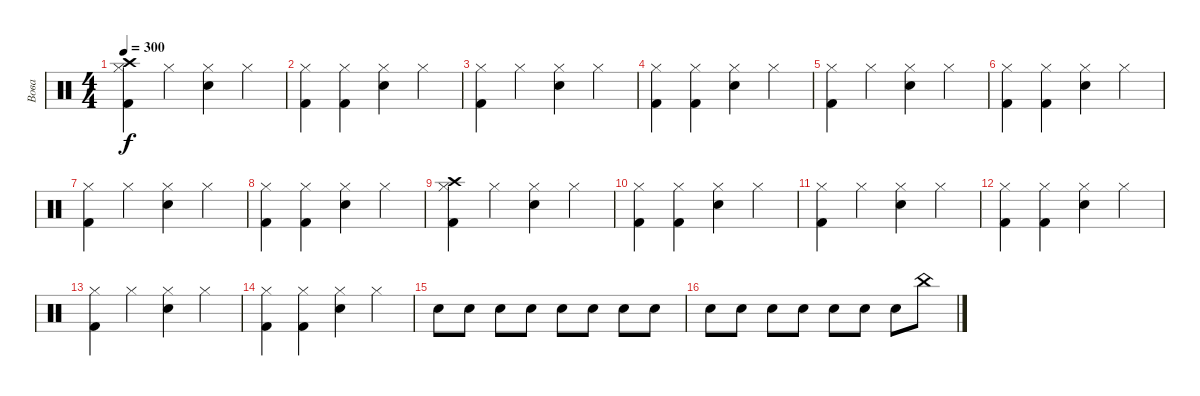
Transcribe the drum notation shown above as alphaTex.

\track ("Вова" "Вова") {instrument percussion}
\staff {score}
\articulation defaults
\ts (4 4)
\tempo 300
\clef neutral
\ks c
("Hi-Hat (closed)" "Crash high (hit)" "Kick (hit) 2").4{dy f} "Hi-Hat (closed)".4 ("Hi-Hat (closed)" "Snare (hit) 2").4 "Hi-Hat (closed)".4 |
("Hi-Hat (closed)" "Kick (hit) 2").4 ("Hi-Hat (closed)" "Kick (hit) 2").4 ("Hi-Hat (closed)" "Snare (hit) 2").4 "Hi-Hat (closed)".4 |
("Hi-Hat (closed)" "Kick (hit) 2").4 "Hi-Hat (closed)".4 ("Hi-Hat (closed)" "Snare (hit) 2").4 "Hi-Hat (closed)".4 |
("Hi-Hat (closed)" "Kick (hit) 2").4 ("Hi-Hat (closed)" "Kick (hit) 2").4 ("Hi-Hat (closed)" "Snare (hit) 2").4 "Hi-Hat (closed)".4 |
("Hi-Hat (closed)" "Kick (hit) 2").4 "Hi-Hat (closed)".4 ("Hi-Hat (closed)" "Snare (hit) 2").4 "Hi-Hat (closed)".4 |
("Hi-Hat (closed)" "Kick (hit) 2").4 ("Hi-Hat (closed)" "Kick (hit) 2").4 ("Hi-Hat (closed)" "Snare (hit) 2").4 "Hi-Hat (closed)".4 |
("Hi-Hat (closed)" "Kick (hit) 2").4 "Hi-Hat (closed)".4 ("Hi-Hat (closed)" "Snare (hit) 2").4 "Hi-Hat (closed)".4 |
("Hi-Hat (closed)" "Kick (hit) 2").4 ("Hi-Hat (closed)" "Kick (hit) 2").4 ("Hi-Hat (closed)" "Snare (hit) 2").4 "Hi-Hat (closed)".4 |
("Hi-Hat (closed)" "Crash high (hit)" "Kick (hit) 2").4 "Hi-Hat (closed)".4 ("Hi-Hat (closed)" "Snare (hit) 2").4 "Hi-Hat (closed)".4 |
("Hi-Hat (closed)" "Kick (hit) 2").4 ("Hi-Hat (closed)" "Kick (hit) 2").4 ("Hi-Hat (closed)" "Snare (hit) 2").4 "Hi-Hat (closed)".4 |
("Hi-Hat (closed)" "Kick (hit) 2").4 "Hi-Hat (closed)".4 ("Hi-Hat (closed)" "Snare (hit) 2").4 "Hi-Hat (closed)".4 |
("Hi-Hat (closed)" "Kick (hit) 2").4 ("Hi-Hat (closed)" "Kick (hit) 2").4 ("Hi-Hat (closed)" "Snare (hit) 2").4 "Hi-Hat (closed)".4 |
("Hi-Hat (closed)" "Kick (hit) 2").4 "Hi-Hat (closed)".4 ("Hi-Hat (closed)" "Snare (hit) 2").4 "Hi-Hat (closed)".4 |
("Hi-Hat (closed)" "Kick (hit) 2").4 ("Hi-Hat (closed)" "Kick (hit) 2").4 ("Hi-Hat (closed)" "Snare (hit) 2").4 "Hi-Hat (closed)".4 |
"Snare (hit) 2".8 "Snare (hit) 2".8 "Snare (hit) 2".8 "Snare (hit) 2".8 "Snare (hit) 2".8 "Snare (hit) 2".8 "Snare (hit) 2".8 "Snare (hit) 2".8 |
"Snare (hit) 2".8 "Snare (hit) 2".8 "Snare (hit) 2".8 "Snare (hit) 2".8 "Snare (hit) 2".8 "Snare (hit) 2".8 "Snare (hit) 2".8 "China (hit)".8
